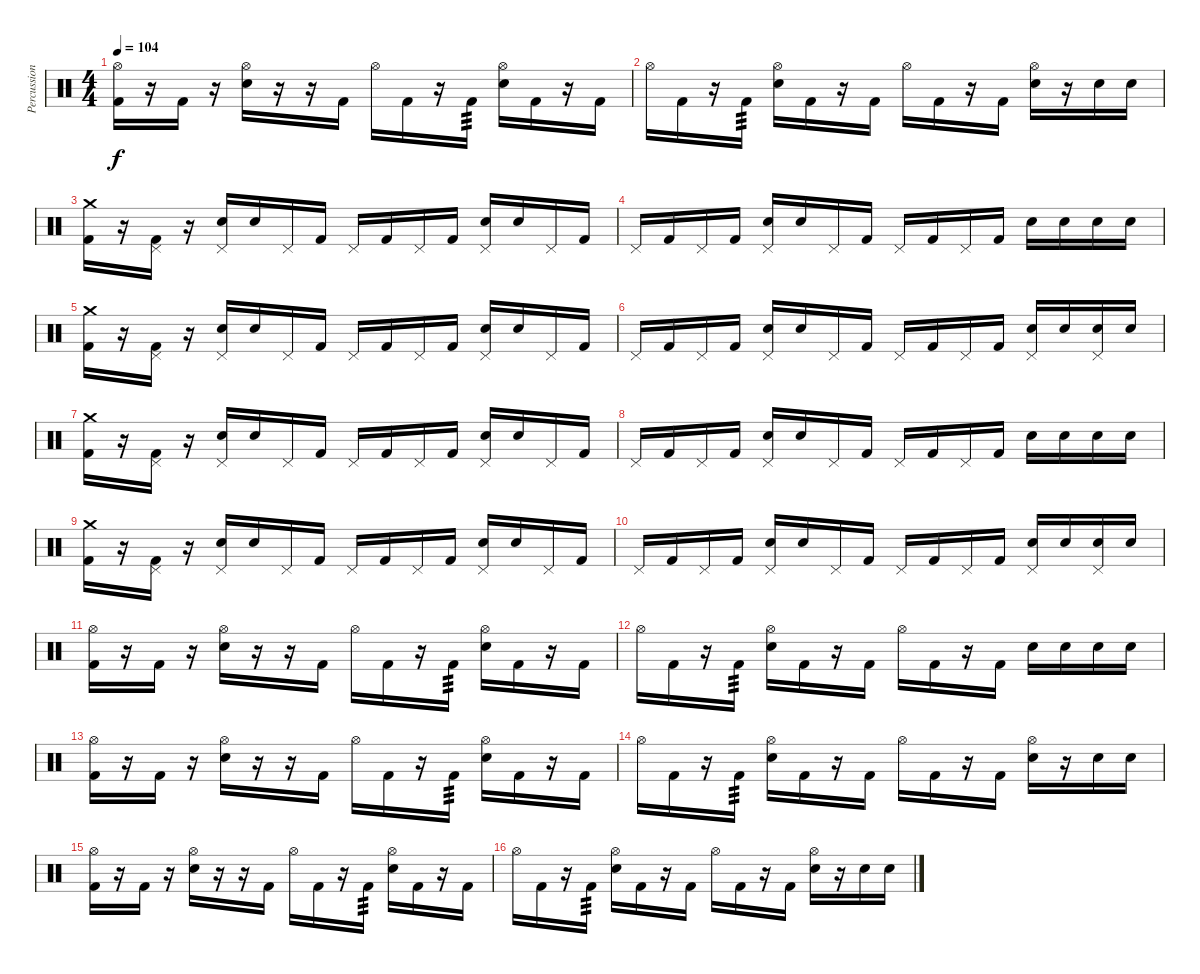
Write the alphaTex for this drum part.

\track ("Percussion" "Percussion") {instrument percussion}
\staff {score}
\articulation defaults
\ts (4 4)
\tempo 104
\clef neutral
\ks c
("Hi-Hat (open)" "Kick (hit) 2").16{dy f} r.16 "Kick (hit) 2".16 r.16 ("Hi-Hat (open)" "Snare (hit) 2").16 r.16 r.16 "Kick (hit) 2".16 "Hi-Hat (open)".16 "Kick (hit) 2".16 r.16 "Kick (hit) 2".16{tp 3} ("Hi-Hat (open)" "Snare (hit) 2").16 "Kick (hit) 2".16 r.16 "Kick (hit) 2".16 |
"Hi-Hat (open)".16 "Kick (hit) 2".16 r.16 "Kick (hit) 2".16{tp 3} ("Hi-Hat (open)" "Snare (hit) 2").16 "Kick (hit) 2".16 r.16 "Kick (hit) 2".16 "Hi-Hat (open)".16 "Kick (hit) 2".16 r.16 "Kick (hit) 2".16 ("Hi-Hat (open)" "Snare (hit) 2").16 r.16 "Snare (hit) 2".16 "Snare (hit) 2".16 |
("Crash medium (hit)" "Kick (hit) 2").16 r.16 ("Pedal Hi-Hat (hit)" "Kick (hit) 2").16 r.16 ("Pedal Hi-Hat (hit)" "Snare (hit) 2").16 "Snare (hit) 2".16 "Pedal Hi-Hat (hit)".16 "Kick (hit) 2".16 "Pedal Hi-Hat (hit)".16 "Kick (hit) 2".16 "Pedal Hi-Hat (hit)".16 "Kick (hit) 2".16 ("Pedal Hi-Hat (hit)" "Snare (hit) 2").16 "Snare (hit) 2".16 "Pedal Hi-Hat (hit)".16 "Kick (hit) 2".16 |
"Pedal Hi-Hat (hit)".16 "Kick (hit) 2".16 "Pedal Hi-Hat (hit)".16 "Kick (hit) 2".16 ("Pedal Hi-Hat (hit)" "Snare (hit) 2").16 "Snare (hit) 2".16 "Pedal Hi-Hat (hit)".16 "Kick (hit) 2".16 "Pedal Hi-Hat (hit)".16 "Kick (hit) 2".16 "Pedal Hi-Hat (hit)".16 "Kick (hit) 2".16 "Snare (hit) 2".16 "Snare (hit) 2".16 "Snare (hit) 2".16 "Snare (hit) 2".16 |
("Crash medium (hit)" "Kick (hit) 2").16 r.16 ("Pedal Hi-Hat (hit)" "Kick (hit) 2").16 r.16 ("Pedal Hi-Hat (hit)" "Snare (hit) 2").16 "Snare (hit) 2".16 "Pedal Hi-Hat (hit)".16 "Kick (hit) 2".16 "Pedal Hi-Hat (hit)".16 "Kick (hit) 2".16 "Pedal Hi-Hat (hit)".16 "Kick (hit) 2".16 ("Pedal Hi-Hat (hit)" "Snare (hit) 2").16 "Snare (hit) 2".16 "Pedal Hi-Hat (hit)".16 "Kick (hit) 2".16 |
"Pedal Hi-Hat (hit)".16 "Kick (hit) 2".16 "Pedal Hi-Hat (hit)".16 "Kick (hit) 2".16 ("Pedal Hi-Hat (hit)" "Snare (hit) 2").16 "Snare (hit) 2".16 "Pedal Hi-Hat (hit)".16 "Kick (hit) 2".16 "Pedal Hi-Hat (hit)".16 "Kick (hit) 2".16 "Pedal Hi-Hat (hit)".16 "Kick (hit) 2".16 ("Pedal Hi-Hat (hit)" "Snare (hit) 2").16 "Snare (hit) 2".16 ("Pedal Hi-Hat (hit)" "Snare (hit) 2").16 "Snare (hit) 2".16 |
("Crash medium (hit)" "Kick (hit) 2").16 r.16 ("Pedal Hi-Hat (hit)" "Kick (hit) 2").16 r.16 ("Pedal Hi-Hat (hit)" "Snare (hit) 2").16 "Snare (hit) 2".16 "Pedal Hi-Hat (hit)".16 "Kick (hit) 2".16 "Pedal Hi-Hat (hit)".16 "Kick (hit) 2".16 "Pedal Hi-Hat (hit)".16 "Kick (hit) 2".16 ("Pedal Hi-Hat (hit)" "Snare (hit) 2").16 "Snare (hit) 2".16 "Pedal Hi-Hat (hit)".16 "Kick (hit) 2".16 |
"Pedal Hi-Hat (hit)".16 "Kick (hit) 2".16 "Pedal Hi-Hat (hit)".16 "Kick (hit) 2".16 ("Pedal Hi-Hat (hit)" "Snare (hit) 2").16 "Snare (hit) 2".16 "Pedal Hi-Hat (hit)".16 "Kick (hit) 2".16 "Pedal Hi-Hat (hit)".16 "Kick (hit) 2".16 "Pedal Hi-Hat (hit)".16 "Kick (hit) 2".16 "Snare (hit) 2".16 "Snare (hit) 2".16 "Snare (hit) 2".16 "Snare (hit) 2".16 |
("Crash medium (hit)" "Kick (hit) 2").16 r.16 ("Pedal Hi-Hat (hit)" "Kick (hit) 2").16 r.16 ("Pedal Hi-Hat (hit)" "Snare (hit) 2").16 "Snare (hit) 2".16 "Pedal Hi-Hat (hit)".16 "Kick (hit) 2".16 "Pedal Hi-Hat (hit)".16 "Kick (hit) 2".16 "Pedal Hi-Hat (hit)".16 "Kick (hit) 2".16 ("Pedal Hi-Hat (hit)" "Snare (hit) 2").16 "Snare (hit) 2".16 "Pedal Hi-Hat (hit)".16 "Kick (hit) 2".16 |
"Pedal Hi-Hat (hit)".16 "Kick (hit) 2".16 "Pedal Hi-Hat (hit)".16 "Kick (hit) 2".16 ("Pedal Hi-Hat (hit)" "Snare (hit) 2").16 "Snare (hit) 2".16 "Pedal Hi-Hat (hit)".16 "Kick (hit) 2".16 "Pedal Hi-Hat (hit)".16 "Kick (hit) 2".16 "Pedal Hi-Hat (hit)".16 "Kick (hit) 2".16 ("Pedal Hi-Hat (hit)" "Snare (hit) 2").16 "Snare (hit) 2".16 ("Pedal Hi-Hat (hit)" "Snare (hit) 2").16 "Snare (hit) 2".16 |
("Hi-Hat (open)" "Kick (hit) 2").16 r.16 "Kick (hit) 2".16 r.16 ("Hi-Hat (open)" "Snare (hit) 2").16 r.16 r.16 "Kick (hit) 2".16 "Hi-Hat (open)".16 "Kick (hit) 2".16 r.16 "Kick (hit) 2".16{tp 3} ("Hi-Hat (open)" "Snare (hit) 2").16 "Kick (hit) 2".16 r.16 "Kick (hit) 2".16 |
"Hi-Hat (open)".16 "Kick (hit) 2".16 r.16 "Kick (hit) 2".16{tp 3} ("Hi-Hat (open)" "Snare (hit) 2").16 "Kick (hit) 2".16 r.16 "Kick (hit) 2".16 "Hi-Hat (open)".16 "Kick (hit) 2".16 r.16 "Kick (hit) 2".16 "Snare (hit) 2".16 "Snare (hit) 2".16 "Snare (hit) 2".16 "Snare (hit) 2".16 |
("Hi-Hat (open)" "Kick (hit) 2").16 r.16 "Kick (hit) 2".16 r.16 ("Hi-Hat (open)" "Snare (hit) 2").16 r.16 r.16 "Kick (hit) 2".16 "Hi-Hat (open)".16 "Kick (hit) 2".16 r.16 "Kick (hit) 2".16{tp 3} ("Hi-Hat (open)" "Snare (hit) 2").16 "Kick (hit) 2".16 r.16 "Kick (hit) 2".16 |
"Hi-Hat (open)".16 "Kick (hit) 2".16 r.16 "Kick (hit) 2".16{tp 3} ("Hi-Hat (open)" "Snare (hit) 2").16 "Kick (hit) 2".16 r.16 "Kick (hit) 2".16 "Hi-Hat (open)".16 "Kick (hit) 2".16 r.16 "Kick (hit) 2".16 ("Hi-Hat (open)" "Snare (hit) 2").16 r.16 "Snare (hit) 2".16 "Snare (hit) 2".16 |
("Hi-Hat (open)" "Kick (hit) 2").16 r.16 "Kick (hit) 2".16 r.16 ("Hi-Hat (open)" "Snare (hit) 2").16 r.16 r.16 "Kick (hit) 2".16 "Hi-Hat (open)".16 "Kick (hit) 2".16 r.16 "Kick (hit) 2".16{tp 3} ("Hi-Hat (open)" "Snare (hit) 2").16 "Kick (hit) 2".16 r.16 "Kick (hit) 2".16 |
"Hi-Hat (open)".16 "Kick (hit) 2".16 r.16 "Kick (hit) 2".16{tp 3} ("Hi-Hat (open)" "Snare (hit) 2").16 "Kick (hit) 2".16 r.16 "Kick (hit) 2".16 "Hi-Hat (open)".16 "Kick (hit) 2".16 r.16 "Kick (hit) 2".16 ("Hi-Hat (open)" "Snare (hit) 2").16 r.16 "Snare (hit) 2".16 "Snare (hit) 2".16
